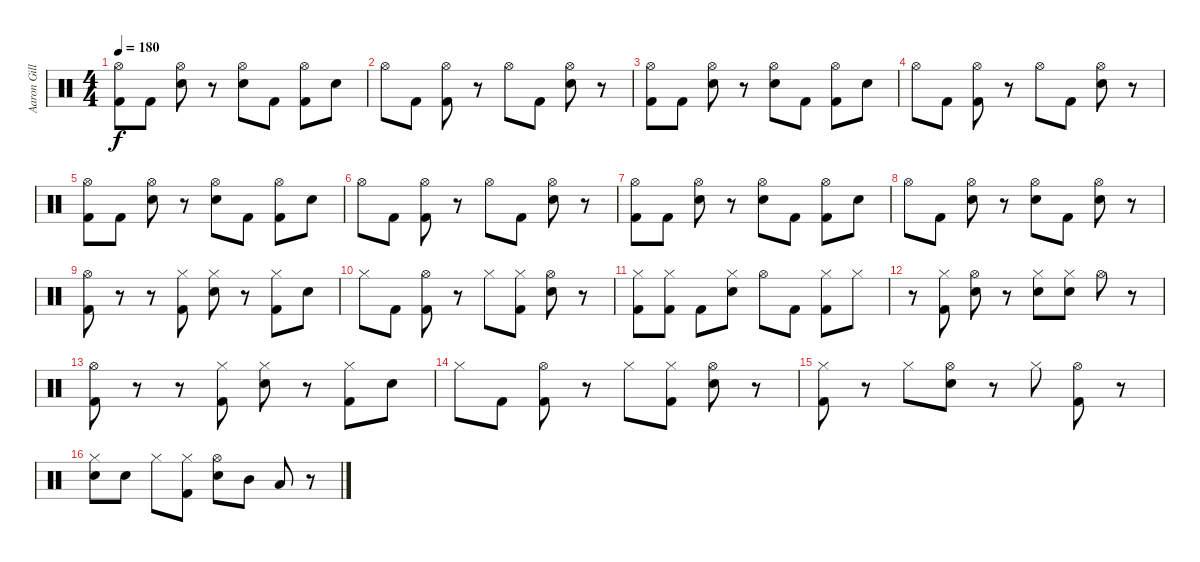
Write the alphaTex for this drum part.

\track ("Aaron Gillespie 1" "Aaron Gill") {instrument percussion}
\staff {score}
\articulation defaults
\ts (4 4)
\tempo 180
\clef neutral
\ks c
("Hi-Hat (open)" "Kick (hit) 2").8{dy f} "Kick (hit) 2".8 ("Hi-Hat (open)" "Snare (hit) 2").8 r.8 ("Hi-Hat (open)" "Snare (hit) 2").8 "Kick (hit) 2".8 ("Hi-Hat (open)" "Kick (hit) 2").8 "Snare (hit) 2".8 |
"Hi-Hat (open)".8 "Kick (hit) 2".8 ("Hi-Hat (open)" "Kick (hit) 2").8 r.8 "Hi-Hat (open)".8 "Kick (hit) 2".8 ("Hi-Hat (open)" "Snare (hit) 2").8 r.8 |
("Hi-Hat (open)" "Kick (hit) 2").8 "Kick (hit) 2".8 ("Hi-Hat (open)" "Snare (hit) 2").8 r.8 ("Hi-Hat (open)" "Snare (hit) 2").8 "Kick (hit) 2".8 ("Hi-Hat (open)" "Kick (hit) 2").8 "Snare (hit) 2".8 |
"Hi-Hat (open)".8 "Kick (hit) 2".8 ("Hi-Hat (open)" "Kick (hit) 2").8 r.8 "Hi-Hat (open)".8 "Kick (hit) 2".8 ("Hi-Hat (open)" "Snare (hit) 2").8 r.8 |
("Hi-Hat (open)" "Kick (hit) 2").8 "Kick (hit) 2".8 ("Hi-Hat (open)" "Snare (hit) 2").8 r.8 ("Hi-Hat (open)" "Snare (hit) 2").8 "Kick (hit) 2".8 ("Hi-Hat (open)" "Kick (hit) 2").8 "Snare (hit) 2".8 |
"Hi-Hat (open)".8 "Kick (hit) 2".8 ("Hi-Hat (open)" "Kick (hit) 2").8 r.8 "Hi-Hat (open)".8 "Kick (hit) 2".8 ("Hi-Hat (open)" "Snare (hit) 2").8 r.8 |
("Hi-Hat (open)" "Kick (hit) 2").8 "Kick (hit) 2".8 ("Hi-Hat (open)" "Snare (hit) 2").8 r.8 ("Hi-Hat (open)" "Snare (hit) 2").8 "Kick (hit) 2".8 ("Hi-Hat (open)" "Kick (hit) 2").8 "Snare (hit) 2".8 |
"Hi-Hat (open)".8 "Kick (hit) 2".8 ("Hi-Hat (open)" "Snare (hit) 2").8 r.8 ("Hi-Hat (open)" "Snare (hit) 2").8 "Kick (hit) 2".8 ("Hi-Hat (open)" "Snare (hit) 2").8 r.8 |
("Hi-Hat (open)" "Kick (hit) 2").8 r.8 r.8 ("Hi-Hat (closed)" "Kick (hit) 2").8 ("Hi-Hat (closed)" "Snare (hit) 2").8 r.8 ("Hi-Hat (closed)" "Kick (hit) 2").8 "Snare (hit) 2".8 |
"Hi-Hat (closed)".8 "Kick (hit) 2".8 ("Hi-Hat (open)" "Kick (hit) 2").8 r.8 "Hi-Hat (closed)".8 ("Hi-Hat (closed)" "Kick (hit) 2").8 ("Hi-Hat (open)" "Snare (hit) 2").8 r.8 |
("Hi-Hat (closed)" "Kick (hit) 2").8 ("Hi-Hat (closed)" "Kick (hit) 2").8 "Kick (hit) 2".8 ("Hi-Hat (closed)" "Snare (hit) 2").8 "Hi-Hat (open)".8 "Kick (hit) 2".8 ("Hi-Hat (closed)" "Kick (hit) 2").8 "Hi-Hat (closed)".8 |
r.8 ("Hi-Hat (closed)" "Kick (hit) 2").8 ("Hi-Hat (open)" "Snare (hit) 2").8 r.8 ("Hi-Hat (closed)" "Snare (hit) 2").8 ("Hi-Hat (closed)" "Snare (hit) 2").8 "Hi-Hat (open)".8 r.8 |
("Hi-Hat (open)" "Kick (hit) 2").8 r.8 r.8 ("Hi-Hat (closed)" "Kick (hit) 2").8 ("Hi-Hat (closed)" "Snare (hit) 2").8 r.8 ("Hi-Hat (closed)" "Kick (hit) 2").8 "Snare (hit) 2".8 |
"Hi-Hat (closed)".8 "Kick (hit) 2".8 ("Hi-Hat (open)" "Kick (hit) 2").8 r.8 "Hi-Hat (closed)".8 ("Hi-Hat (closed)" "Kick (hit) 2").8 ("Hi-Hat (open)" "Snare (hit) 2").8 r.8 |
("Hi-Hat (closed)" "Kick (hit) 2").8 r.8 "Hi-Hat (closed)".8 ("Hi-Hat (open)" "Snare (hit) 2").8 r.8 "Hi-Hat (closed)".8 ("Hi-Hat (open)" "Kick (hit) 2").8 r.8 |
("Hi-Hat (closed)" "Snare (hit) 2").8 "Snare (hit) 2".8 "Hi-Hat (closed)".8 ("Hi-Hat (closed)" "Kick (hit) 2").8 ("Hi-Hat (open)" "Snare (hit) 2").8 "Mid Tom (hit)".8 "Low Tom (hit)".8 r.8
